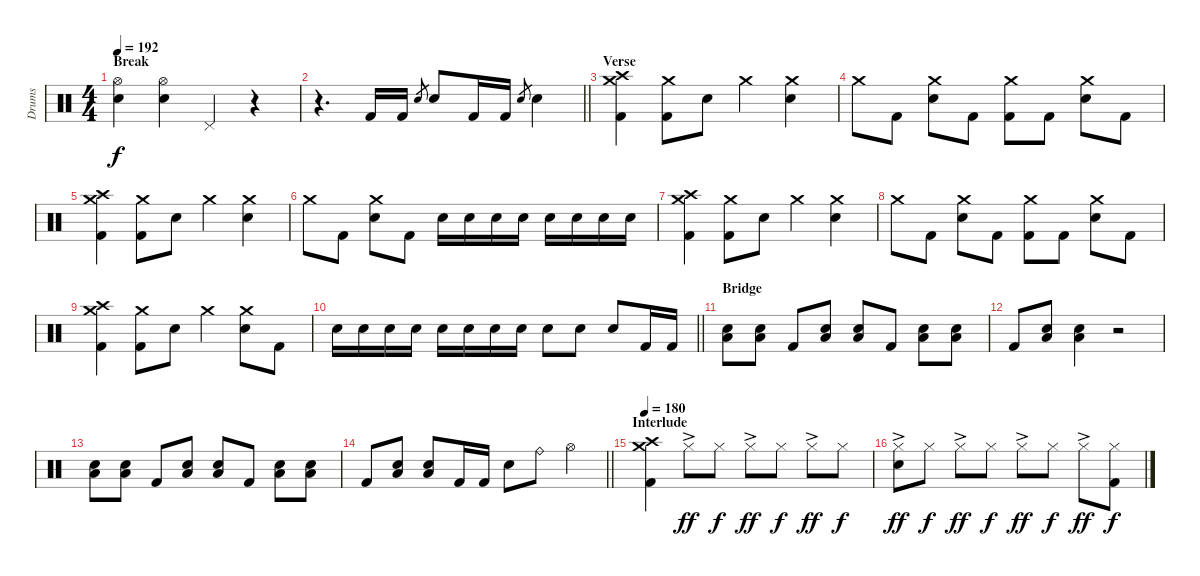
\track ("Drums" "Drums") {instrument percussion}
\staff {score}
\articulation defaults
\ts (4 4)
\section ("" "Break")
\tempo 192
\clef neutral
\ks c
("Hi-Hat (open)" "Electric Snare (hit)").4{dy f} ("Hi-Hat (open)" "Electric Snare (hit)").4 "Pedal Hi-Hat (hit)".4 r.4 |
\barLineRight lightlight
r.4{d} "Kick (hit) 2".16 "Kick (hit) 2".16 "Electric Snare (hit)".8{gr} "Electric Snare (hit)".8 "Kick (hit) 2".16 "Kick (hit) 2".16 "Electric Snare (hit)".8{gr} "Electric Snare (hit)".4 |
\section ("" "Verse")
("Crash medium (hit)" "Crash high (hit)" "Kick (hit) 2").4 ("Crash medium (hit)" "Kick (hit) 2").8 "Electric Snare (hit)".8 "Crash medium (hit)".4 ("Crash medium (hit)" "Electric Snare (hit)").4 |
"Crash medium (hit)".8 "Kick (hit) 2".8 ("Crash medium (hit)" "Electric Snare (hit)").8 "Kick (hit) 2".8 ("Crash medium (hit)" "Kick (hit) 2").8 "Kick (hit) 2".8 ("Crash medium (hit)" "Electric Snare (hit)").8 "Kick (hit) 2".8 |
("Crash medium (hit)" "Crash high (hit)" "Kick (hit) 2").4 ("Crash medium (hit)" "Kick (hit) 2").8 "Electric Snare (hit)".8 "Crash medium (hit)".4 ("Crash medium (hit)" "Electric Snare (hit)").4 |
"Crash medium (hit)".8 "Kick (hit) 2".8 ("Crash medium (hit)" "Electric Snare (hit)").8 "Kick (hit) 2".8 "Electric Snare (hit)".16 "Electric Snare (hit)".16 "Electric Snare (hit)".16 "Electric Snare (hit)".16 "Electric Snare (hit)".16 "Electric Snare (hit)".16 "Electric Snare (hit)".16 "Electric Snare (hit)".16 |
("Crash medium (hit)" "Crash high (hit)" "Kick (hit) 2").4 ("Crash medium (hit)" "Kick (hit) 2").8 "Electric Snare (hit)".8 "Crash medium (hit)".4 ("Crash medium (hit)" "Electric Snare (hit)").4 |
"Crash medium (hit)".8 "Kick (hit) 2".8 ("Crash medium (hit)" "Electric Snare (hit)").8 "Kick (hit) 2".8 ("Crash medium (hit)" "Kick (hit) 2").8 "Kick (hit) 2".8 ("Crash medium (hit)" "Electric Snare (hit)").8 "Kick (hit) 2".8 |
("Crash medium (hit)" "Crash high (hit)" "Kick (hit) 2").4 ("Crash medium (hit)" "Kick (hit) 2").8 "Electric Snare (hit)".8 "Crash medium (hit)".4 ("Crash medium (hit)" "Electric Snare (hit)").8 "Kick (hit) 2".8 |
\barLineRight lightlight "Electric Snare (hit)".16 "Electric Snare (hit)".16 "Electric Snare (hit)".16 "Electric Snare (hit)".16 "Electric Snare (hit)".16 "Electric Snare (hit)".16 "Electric Snare (hit)".16 "Electric Snare (hit)".16 "Electric Snare (hit)".8 "Electric Snare (hit)".8 "Electric Snare (hit)".8 "Kick (hit) 2".16 "Kick (hit) 2".16
|
\section ("" "Bridge")
("Electric Snare (hit)" "Low Floor Tom (hit)").8 ("Electric Snare (hit)" "Low Floor Tom (hit)").8 "Kick (hit) 2".8 ("Electric Snare (hit)" "Low Floor Tom (hit)").8 ("Electric Snare (hit)" "Low Floor Tom (hit)").8 "Kick (hit) 2".8 ("Electric Snare (hit)" "Low Floor Tom (hit)").8 ("Electric Snare (hit)" "Low Floor Tom (hit)").8 |
"Kick (hit) 2".8 ("Electric Snare (hit)" "Low Floor Tom (hit)").8 ("Electric Snare (hit)" "Low Floor Tom (hit)").4 r.2 |
("Electric Snare (hit)" "Low Floor Tom (hit)").8 ("Electric Snare (hit)" "Low Floor Tom (hit)").8 "Kick (hit) 2".8 ("Electric Snare (hit)" "Low Floor Tom (hit)").8 ("Electric Snare (hit)" "Low Floor Tom (hit)").8 "Kick (hit) 2".8 ("Electric Snare (hit)" "Low Floor Tom (hit)").8 ("Electric Snare (hit)" "Low Floor Tom (hit)").8 |
\barLineRight lightlight "Kick (hit) 2".8
("Electric Snare (hit)" "Low Floor Tom (hit)").8 ("Electric Snare (hit)" "Low Floor Tom (hit)").8 "Kick (hit) 2".16 "Kick (hit) 2".16 "Electric Snare (hit)".8 "Ride (bell)".8 "Hi-Hat (open)".4 |
\section ("" "Interlude")
\tempo 180
("Crash medium (hit)" "Crash high (hit)" "Kick (hit) 2").4 "Hi-Hat (closed)"{ac}.8{dy ff} "Hi-Hat (closed)".8{dy f} "Hi-Hat (closed)"{ac}.8{dy ff} "Hi-Hat (closed)".8{dy f} "Hi-Hat (closed)"{ac}.8{dy ff} "Hi-Hat (closed)".8{dy f} |
("Hi-Hat (closed)"{ac} "Electric Snare (hit)").8{dy ff} "Hi-Hat (closed)".8{dy f} "Hi-Hat (closed)"{ac}.8{dy ff} "Hi-Hat (closed)".8{dy f} "Hi-Hat (closed)"{ac}.8{dy ff} "Hi-Hat (closed)".8{dy f} "Hi-Hat (closed)"{ac}.8{dy ff} ("Hi-Hat (closed)" "Kick (hit) 2").8{dy f}
